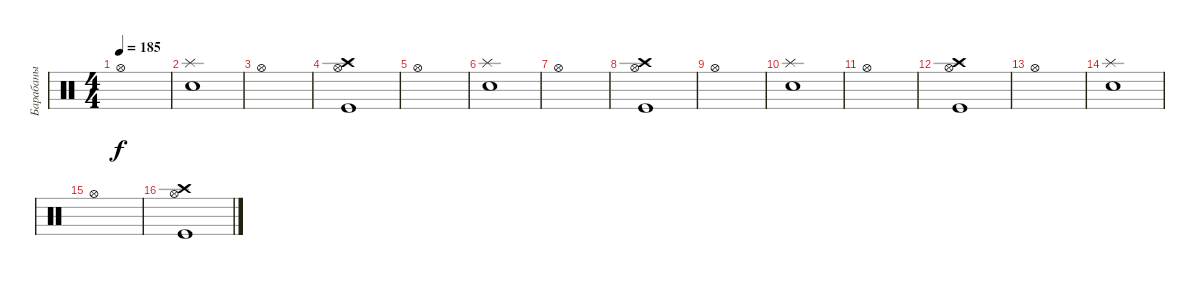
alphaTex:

\track ("Барабаны" "Барабаны") {instrument percussion}
\staff {score}
\articulation defaults
\ts (4 4)
\tempo 185
\clef neutral
\ks c "Hi-Hat (open)".1{dy f}
|
("Splash (hit)" "Electric Snare (hit)").1 |
"Hi-Hat (open)".1 |
("Hi-Hat (open)" "Crash high (hit)" "Kick (hit)").1 |
"Hi-Hat (open)".1 |
("Splash (hit)" "Electric Snare (hit)").1 |
"Hi-Hat (open)".1 |
("Hi-Hat (open)" "Crash high (hit)" "Kick (hit)").1 |
"Hi-Hat (open)".1 |
("Splash (hit)" "Electric Snare (hit)").1 |
"Hi-Hat (open)".1 |
("Hi-Hat (open)" "Crash high (hit)" "Kick (hit)").1 |
"Hi-Hat (open)".1 |
("Splash (hit)" "Electric Snare (hit)").1 |
"Hi-Hat (open)".1 |
("Hi-Hat (open)" "Crash high (hit)" "Kick (hit)").1
